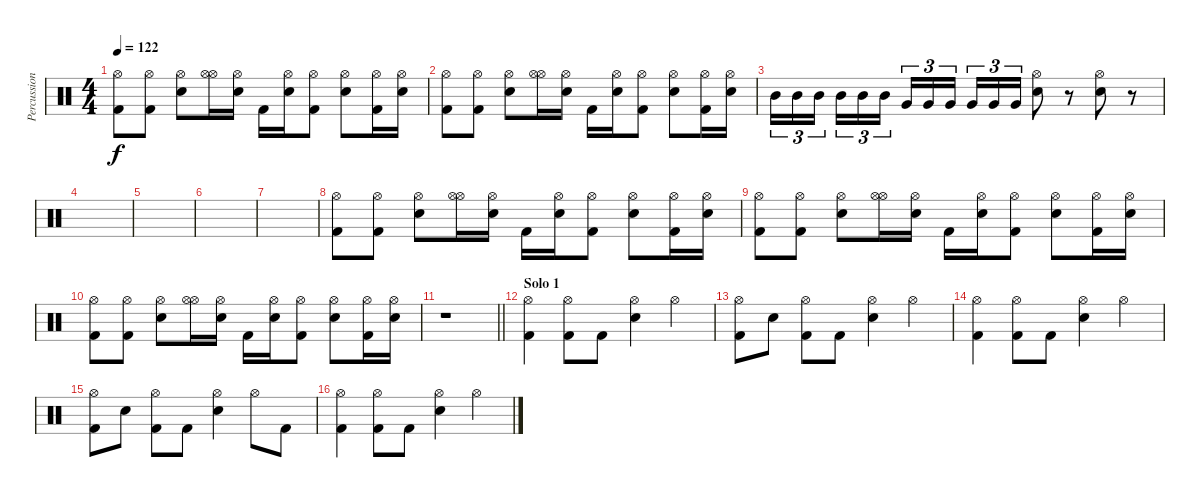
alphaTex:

\track ("Percussion" "Percussion") {instrument percussion}
\staff {score}
\articulation defaults
\ts (4 4)
\tempo 122
\clef neutral
\ks c
("Hi-Hat (open)" "Kick (hit) 2").8{dy f} ("Hi-Hat (open)" "Kick (hit) 2").8 ("Hi-Hat (open)" "Electric Snare (hit)").8 ("Hi-Hat (open)" "Hi-Hat (open)").16 ("Hi-Hat (open)" "Electric Snare (hit)").16 "Kick (hit) 2".16 ("Hi-Hat (open)" "Electric Snare (hit)").16 ("Hi-Hat (open)" "Kick (hit) 2").8 ("Hi-Hat (open)" "Electric Snare (hit)").8 ("Hi-Hat (open)" "Kick (hit) 2").16 ("Hi-Hat (open)" "Electric Snare (hit)").16 |
("Hi-Hat (open)" "Kick (hit) 2").8 ("Hi-Hat (open)" "Kick (hit) 2").8 ("Hi-Hat (open)" "Electric Snare (hit)").8 ("Hi-Hat (open)" "Hi-Hat (open)").16 ("Hi-Hat (open)" "Electric Snare (hit)").16 "Kick (hit) 2".16 ("Hi-Hat (open)" "Electric Snare (hit)").16 ("Hi-Hat (open)" "Kick (hit) 2").8 ("Hi-Hat (open)" "Electric Snare (hit)").8 ("Hi-Hat (open)" "Kick (hit) 2").16 ("Hi-Hat (open)" "Electric Snare (hit)").16 |
"Mid Tom (hit)".16{tu (3 2)} "Mid Tom (hit)".16{tu (3 2)} "Mid Tom (hit)".16{tu (3 2) beam splitsecondary} "Mid Tom (hit)".16{tu (3 2)} "Mid Tom (hit)".16{tu (3 2)} "Mid Tom (hit)".16{tu (3 2)} "Very Low Tom (hit)".16{tu (3 2)} "Very Low Tom (hit)".16{tu (3 2)} "Very Low Tom (hit)".16{tu (3 2) beam splitsecondary} "Very Low Tom (hit)".16{tu (3 2)} "Very Low Tom (hit)".16{tu (3 2)} "Very Low Tom (hit)".16{tu (3 2)} ("Hi-Hat (open)" "Electric Snare (hit)").8 r.8 ("Hi-Hat (open)" "Electric Snare (hit)").8 r.8 |
|
|
|
|
("Hi-Hat (open)" "Kick (hit) 2").8 ("Hi-Hat (open)" "Kick (hit) 2").8 ("Hi-Hat (open)" "Electric Snare (hit)").8 ("Hi-Hat (open)" "Hi-Hat (open)").16 ("Hi-Hat (open)" "Electric Snare (hit)").16 "Kick (hit) 2".16 ("Hi-Hat (open)" "Electric Snare (hit)").16 ("Hi-Hat (open)" "Kick (hit) 2").8 ("Hi-Hat (open)" "Electric Snare (hit)").8 ("Hi-Hat (open)" "Kick (hit) 2").16 ("Hi-Hat (open)" "Electric Snare (hit)").16 |
("Hi-Hat (open)" "Kick (hit) 2").8 ("Hi-Hat (open)" "Kick (hit) 2").8 ("Hi-Hat (open)" "Electric Snare (hit)").8 ("Hi-Hat (open)" "Hi-Hat (open)").16 ("Hi-Hat (open)" "Electric Snare (hit)").16 "Kick (hit) 2".16 ("Hi-Hat (open)" "Electric Snare (hit)").16 ("Hi-Hat (open)" "Kick (hit) 2").8 ("Hi-Hat (open)" "Electric Snare (hit)").8 ("Hi-Hat (open)" "Kick (hit) 2").16 ("Hi-Hat (open)" "Electric Snare (hit)").16 |
("Hi-Hat (open)" "Kick (hit) 2").8 ("Hi-Hat (open)" "Kick (hit) 2").8 ("Hi-Hat (open)" "Electric Snare (hit)").8 ("Hi-Hat (open)" "Hi-Hat (open)").16 ("Hi-Hat (open)" "Electric Snare (hit)").16 "Kick (hit) 2".16 ("Hi-Hat (open)" "Electric Snare (hit)").16 ("Hi-Hat (open)" "Kick (hit) 2").8 ("Hi-Hat (open)" "Electric Snare (hit)").8 ("Hi-Hat (open)" "Kick (hit) 2").16 ("Hi-Hat (open)" "Electric Snare (hit)").16 |
\barLineRight lightlight
r.1 |
\section ("" "Solo 1")
("Kick (hit) 2" "Hi-Hat (open)").4 ("Kick (hit) 2" "Hi-Hat (open)").8 "Kick (hit) 2".8 ("Electric Snare (hit)" "Hi-Hat (open)").4 "Hi-Hat (open)".4 |
("Kick (hit) 2" "Hi-Hat (open)").8 "Electric Snare (hit)".8 ("Kick (hit) 2" "Hi-Hat (open)").8 "Kick (hit) 2".8 ("Electric Snare (hit)" "Hi-Hat (open)").4 "Hi-Hat (open)".4 |
("Kick (hit) 2" "Hi-Hat (open)").4 ("Kick (hit) 2" "Hi-Hat (open)").8 "Kick (hit) 2".8 ("Electric Snare (hit)" "Hi-Hat (open)").4 "Hi-Hat (open)".4 |
("Kick (hit) 2" "Hi-Hat (open)").8 "Electric Snare (hit)".8 ("Kick (hit) 2" "Hi-Hat (open)").8 "Kick (hit) 2".8 ("Electric Snare (hit)" "Hi-Hat (open)").4 "Hi-Hat (open)".8 "Kick (hit) 2".8 |
("Kick (hit) 2" "Hi-Hat (open)").4 ("Kick (hit) 2" "Hi-Hat (open)").8 "Kick (hit) 2".8 ("Electric Snare (hit)" "Hi-Hat (open)").4 "Hi-Hat (open)".4
